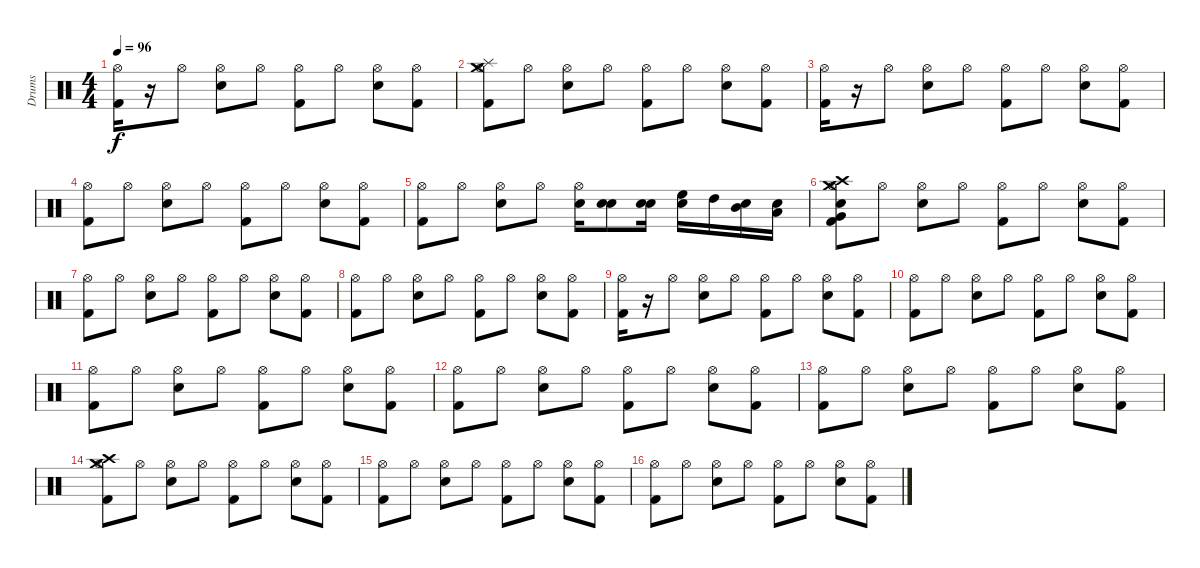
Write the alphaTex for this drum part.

\track ("Drums" "Drums") {instrument percussion}
\staff {score}
\articulation defaults
\ts (4 4)
\tempo 96
\clef neutral
\ks c
("Hi-Hat (open)" "Kick (hit) 2").16{dy f} r.16 "Hi-Hat (open)".8 ("Hi-Hat (open)" "Snare (hit) 2").8 "Hi-Hat (open)".8 ("Kick (hit) 2" "Hi-Hat (open)").8 "Hi-Hat (open)".8 ("Snare (hit) 2" "Hi-Hat (open)").8 ("Kick (hit) 2" "Hi-Hat (open)").8 |
("Crash medium (hit)" "Splash (hit)" "Kick (hit) 2" "Hi-Hat (open)").8 "Hi-Hat (open)".8 ("Hi-Hat (open)" "Snare (hit) 2").8 "Hi-Hat (open)".8 ("Kick (hit) 2" "Hi-Hat (open)").8 "Hi-Hat (open)".8 ("Hi-Hat (open)" "Snare (hit) 2").8 ("Kick (hit) 2" "Hi-Hat (open)").8 |
("Hi-Hat (open)" "Kick (hit) 2").16 r.16 "Hi-Hat (open)".8 ("Hi-Hat (open)" "Snare (hit) 2").8 "Hi-Hat (open)".8 ("Hi-Hat (open)" "Kick (hit) 2").8 "Hi-Hat (open)".8 ("Hi-Hat (open)" "Snare (hit) 2").8 ("Hi-Hat (open)" "Kick (hit) 2").8 |
("Hi-Hat (open)" "Kick (hit) 2").8 "Hi-Hat (open)".8 ("Hi-Hat (open)" "Snare (hit) 2").8 "Hi-Hat (open)".8 ("Hi-Hat (open)" "Kick (hit) 2").8 "Hi-Hat (open)".8 ("Hi-Hat (open)" "Snare (hit) 2").8 ("Hi-Hat (open)" "Kick (hit) 2").8 |
("Hi-Hat (open)" "Kick (hit) 2").8 "Hi-Hat (open)".8 ("Hi-Hat (open)" "Snare (hit) 2").8 "Hi-Hat (open)".8 ("Snare (hit) 2" "Hi-Hat (open)").16 ("Snare (hit)" "Snare (hit) 2").8 ("Snare (hit)" "Snare (hit) 2").16 ("Snare (hit)" "High Floor Tom (hit)").16 "High Tom (hit)".16 ("Snare (hit)" "Mid Tom (hit)").16 ("Snare (hit)" "Low Tom (hit)").16 |
("Snare (hit)" "Very Low Tom (hit)" "Crash high (hit)" "Crash medium (hit)" "Hi-Hat (open)" "Kick (hit) 2").8 "Hi-Hat (open)".8 ("Hi-Hat (open)" "Snare (hit) 2").8 "Hi-Hat (open)".8 ("Hi-Hat (open)" "Kick (hit) 2").8 "Hi-Hat (open)".8 ("Hi-Hat (open)" "Snare (hit) 2").8 ("Hi-Hat (open)" "Kick (hit) 2").8 |
("Hi-Hat (open)" "Kick (hit) 2").8 "Hi-Hat (open)".8 ("Hi-Hat (open)" "Snare (hit) 2").8 "Hi-Hat (open)".8 ("Hi-Hat (open)" "Kick (hit) 2").8 "Hi-Hat (open)".8 ("Hi-Hat (open)" "Snare (hit) 2").8 ("Hi-Hat (open)" "Kick (hit) 2").8 |
("Hi-Hat (open)" "Kick (hit) 2").8 "Hi-Hat (open)".8 ("Hi-Hat (open)" "Snare (hit) 2").8 "Hi-Hat (open)".8 ("Hi-Hat (open)" "Kick (hit) 2").8 "Hi-Hat (open)".8 ("Hi-Hat (open)" "Snare (hit) 2").8 ("Hi-Hat (open)" "Kick (hit) 2").8 |
("Hi-Hat (open)" "Kick (hit) 2").16 r.16 "Hi-Hat (open)".8 ("Snare (hit) 2" "Hi-Hat (open)").8 "Hi-Hat (open)".8 ("Kick (hit) 2" "Hi-Hat (open)").8 "Hi-Hat (open)".8 ("Snare (hit) 2" "Hi-Hat (open)").8 ("Kick (hit) 2" "Hi-Hat (open)").8 |
("Hi-Hat (open)" "Kick (hit) 2").8 "Hi-Hat (open)".8 ("Hi-Hat (open)" "Snare (hit) 2").8 "Hi-Hat (open)".8 ("Hi-Hat (open)" "Kick (hit) 2").8 "Hi-Hat (open)".8 ("Hi-Hat (open)" "Snare (hit) 2").8 ("Hi-Hat (open)" "Kick (hit) 2").8 |
("Kick (hit) 2" "Hi-Hat (open)").8 "Hi-Hat (open)".8 ("Hi-Hat (open)" "Snare (hit) 2").8 "Hi-Hat (open)".8 ("Hi-Hat (open)" "Kick (hit) 2").8 "Hi-Hat (open)".8 ("Hi-Hat (open)" "Snare (hit) 2").8 ("Hi-Hat (open)" "Kick (hit) 2").8 |
("Kick (hit) 2" "Hi-Hat (open)").8 "Hi-Hat (open)".8 ("Hi-Hat (open)" "Snare (hit) 2").8 "Hi-Hat (open)".8 ("Hi-Hat (open)" "Kick (hit) 2").8 "Hi-Hat (open)".8 ("Snare (hit) 2" "Hi-Hat (open)").8 ("Hi-Hat (open)" "Kick (hit) 2").8 |
("Kick (hit) 2" "Hi-Hat (open)").8 "Hi-Hat (open)".8 ("Snare (hit) 2" "Hi-Hat (open)").8 "Hi-Hat (open)".8 ("Hi-Hat (open)" "Kick (hit) 2").8 "Hi-Hat (open)".8 ("Snare (hit) 2" "Hi-Hat (open)").8 ("Hi-Hat (open)" "Kick (hit) 2").8 |
("Crash high (hit)" "Crash medium (hit)" "Kick (hit) 2" "Hi-Hat (open)").8 "Hi-Hat (open)".8 ("Snare (hit) 2" "Hi-Hat (open)").8 "Hi-Hat (open)".8 ("Hi-Hat (open)" "Kick (hit) 2").8 "Hi-Hat (open)".8 ("Snare (hit) 2" "Hi-Hat (open)").8 ("Hi-Hat (open)" "Kick (hit) 2").8 |
("Hi-Hat (open)" "Kick (hit) 2").8 "Hi-Hat (open)".8 ("Hi-Hat (open)" "Snare (hit) 2").8 "Hi-Hat (open)".8 ("Hi-Hat (open)" "Kick (hit) 2").8 "Hi-Hat (open)".8 ("Hi-Hat (open)" "Snare (hit) 2").8 ("Hi-Hat (open)" "Kick (hit) 2").8 |
("Hi-Hat (open)" "Kick (hit) 2").8 "Hi-Hat (open)".8 ("Hi-Hat (open)" "Snare (hit) 2").8 "Hi-Hat (open)".8 ("Hi-Hat (open)" "Kick (hit) 2").8 "Hi-Hat (open)".8 ("Snare (hit) 2" "Hi-Hat (open)").8 ("Kick (hit) 2" "Hi-Hat (open)").8
